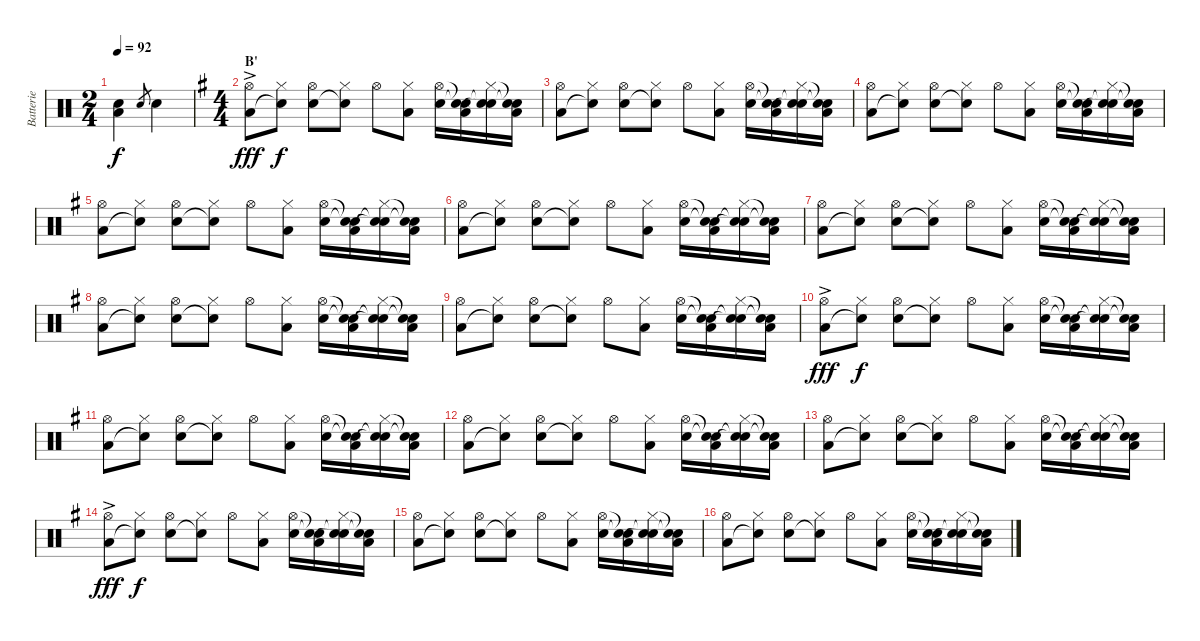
\track ("Batterie" "Batterie") {instrument percussion}
\staff {score}
\articulation defaults
\ts (2 4)
\tempo 92
\clef neutral
\ks c
("Snare (hit) 2" "Low Tom (hit)").4{dy f} "Electric Snare (hit)".8{gr} "Electric Snare (hit)".4 |
\ts (4 4)
\section ("" "B'")
\ks g
("Hi-Hat (open)"{ac} "Low Floor Tom (hit)").8{dy fff} ("Hi-Hat (closed)" "Snare (hit)"{t}).8{dy f} ("Hi-Hat (open)" "Electric Snare (hit)").8 ("Hi-Hat (closed)" "Snare (hit)"{t}).8 "Hi-Hat (open)".8 ("Hi-Hat (closed)" "Low Floor Tom (hit)").8 ("Hi-Hat (open)" "Electric Snare (hit)").16 ("Snare (hit)"{t} "Snare (hit)"{t} "Low Floor Tom (hit)").16 ("Hi-Hat (closed)" "Snare (hit)"{t} "Snare (hit)"{t}).16 ("Snare (hit)"{t} "Snare (hit)"{t} "Low Floor Tom (hit)").16 |
("Hi-Hat (open)" "Low Floor Tom (hit)").8 ("Hi-Hat (closed)" "Snare (hit)"{t}).8 ("Hi-Hat (open)" "Electric Snare (hit)").8 ("Hi-Hat (closed)" "Snare (hit)"{t}).8 "Hi-Hat (open)".8 ("Hi-Hat (closed)" "Low Floor Tom (hit)").8 ("Hi-Hat (open)" "Electric Snare (hit)").16 ("Snare (hit)"{t} "Snare (hit)"{t} "Low Floor Tom (hit)").16 ("Hi-Hat (closed)" "Snare (hit)"{t} "Snare (hit)"{t}).16 ("Snare (hit)"{t} "Snare (hit)"{t} "Low Floor Tom (hit)").16 |
("Hi-Hat (open)" "Low Floor Tom (hit)").8 ("Hi-Hat (closed)" "Snare (hit)"{t}).8 ("Hi-Hat (open)" "Electric Snare (hit)").8 ("Hi-Hat (closed)" "Snare (hit)"{t}).8 "Hi-Hat (open)".8 ("Hi-Hat (closed)" "Low Floor Tom (hit)").8 ("Hi-Hat (open)" "Electric Snare (hit)").16 ("Snare (hit)"{t} "Snare (hit)"{t} "Low Floor Tom (hit)").16 ("Hi-Hat (closed)" "Snare (hit)"{t} "Snare (hit)"{t}).16 ("Snare (hit)"{t} "Snare (hit)"{t} "Low Floor Tom (hit)").16 |
("Hi-Hat (open)" "Low Floor Tom (hit)").8 ("Hi-Hat (closed)" "Snare (hit)"{t}).8 ("Hi-Hat (open)" "Electric Snare (hit)").8 ("Hi-Hat (closed)" "Snare (hit)"{t}).8 "Hi-Hat (open)".8 ("Hi-Hat (closed)" "Low Floor Tom (hit)").8 ("Hi-Hat (open)" "Electric Snare (hit)").16 ("Snare (hit)"{t} "Snare (hit)"{t} "Low Floor Tom (hit)").16 ("Hi-Hat (closed)" "Snare (hit)"{t} "Snare (hit)"{t}).16 ("Snare (hit)"{t} "Snare (hit)"{t} "Low Floor Tom (hit)").16 |
("Hi-Hat (open)" "Low Floor Tom (hit)").8 ("Hi-Hat (closed)" "Snare (hit)"{t}).8 ("Hi-Hat (open)" "Electric Snare (hit)").8 ("Hi-Hat (closed)" "Snare (hit)"{t}).8 "Hi-Hat (open)".8 ("Hi-Hat (closed)" "Low Floor Tom (hit)").8 ("Hi-Hat (open)" "Electric Snare (hit)").16 ("Snare (hit)"{t} "Snare (hit)"{t} "Low Floor Tom (hit)").16 ("Hi-Hat (closed)" "Snare (hit)"{t} "Snare (hit)"{t}).16 ("Snare (hit)"{t} "Snare (hit)"{t} "Low Floor Tom (hit)").16 |
("Hi-Hat (open)" "Low Floor Tom (hit)").8 ("Hi-Hat (closed)" "Snare (hit)"{t}).8 ("Hi-Hat (open)" "Electric Snare (hit)").8 ("Hi-Hat (closed)" "Snare (hit)"{t}).8 "Hi-Hat (open)".8 ("Hi-Hat (closed)" "Low Floor Tom (hit)").8 ("Hi-Hat (open)" "Electric Snare (hit)").16 ("Snare (hit)"{t} "Snare (hit)"{t} "Low Floor Tom (hit)").16 ("Hi-Hat (closed)" "Snare (hit)"{t} "Snare (hit)"{t}).16 ("Snare (hit)"{t} "Snare (hit)"{t} "Low Floor Tom (hit)").16 |
("Hi-Hat (open)" "Low Floor Tom (hit)").8 ("Hi-Hat (closed)" "Snare (hit)"{t}).8 ("Hi-Hat (open)" "Electric Snare (hit)").8 ("Hi-Hat (closed)" "Snare (hit)"{t}).8 "Hi-Hat (open)".8 ("Hi-Hat (closed)" "Low Floor Tom (hit)").8 ("Hi-Hat (open)" "Electric Snare (hit)").16 ("Snare (hit)"{t} "Snare (hit)"{t} "Low Floor Tom (hit)").16 ("Hi-Hat (closed)" "Snare (hit)"{t} "Snare (hit)"{t}).16 ("Snare (hit)"{t} "Snare (hit)"{t} "Low Floor Tom (hit)").16 |
("Hi-Hat (open)" "Low Floor Tom (hit)").8 ("Hi-Hat (closed)" "Snare (hit)"{t}).8 ("Hi-Hat (open)" "Electric Snare (hit)").8 ("Hi-Hat (closed)" "Snare (hit)"{t}).8 "Hi-Hat (open)".8 ("Hi-Hat (closed)" "Low Floor Tom (hit)").8 ("Hi-Hat (open)" "Electric Snare (hit)").16 ("Snare (hit)"{t} "Snare (hit)"{t} "Low Floor Tom (hit)").16 ("Hi-Hat (closed)" "Snare (hit)"{t} "Snare (hit)"{t}).16 ("Snare (hit)"{t} "Snare (hit)"{t} "Low Floor Tom (hit)").16 |
("Hi-Hat (open)"{ac} "Low Floor Tom (hit)").8{dy fff} ("Hi-Hat (closed)" "Snare (hit)"{t}).8{dy f} ("Hi-Hat (open)" "Electric Snare (hit)").8 ("Hi-Hat (closed)" "Snare (hit)"{t}).8 "Hi-Hat (open)".8 ("Hi-Hat (closed)" "Low Floor Tom (hit)").8 ("Hi-Hat (open)" "Electric Snare (hit)").16 ("Snare (hit)"{t} "Snare (hit)"{t} "Low Floor Tom (hit)").16 ("Hi-Hat (closed)" "Snare (hit)"{t} "Snare (hit)"{t}).16 ("Snare (hit)"{t} "Snare (hit)"{t} "Low Floor Tom (hit)").16 |
("Hi-Hat (open)" "Low Floor Tom (hit)").8 ("Hi-Hat (closed)" "Snare (hit)"{t}).8 ("Hi-Hat (open)" "Electric Snare (hit)").8 ("Hi-Hat (closed)" "Snare (hit)"{t}).8 "Hi-Hat (open)".8 ("Hi-Hat (closed)" "Low Floor Tom (hit)").8 ("Hi-Hat (open)" "Electric Snare (hit)").16 ("Snare (hit)"{t} "Snare (hit)"{t} "Low Floor Tom (hit)").16 ("Hi-Hat (closed)" "Snare (hit)"{t} "Snare (hit)"{t}).16 ("Snare (hit)"{t} "Snare (hit)"{t} "Low Floor Tom (hit)").16 |
("Hi-Hat (open)" "Low Floor Tom (hit)").8 ("Hi-Hat (closed)" "Snare (hit)"{t}).8 ("Hi-Hat (open)" "Electric Snare (hit)").8 ("Hi-Hat (closed)" "Snare (hit)"{t}).8 "Hi-Hat (open)".8 ("Hi-Hat (closed)" "Low Floor Tom (hit)").8 ("Hi-Hat (open)" "Electric Snare (hit)").16 ("Snare (hit)"{t} "Snare (hit)"{t} "Low Floor Tom (hit)").16 ("Hi-Hat (closed)" "Snare (hit)"{t} "Snare (hit)"{t}).16 ("Snare (hit)"{t} "Snare (hit)"{t} "Low Floor Tom (hit)").16 |
("Hi-Hat (open)" "Low Floor Tom (hit)").8 ("Hi-Hat (closed)" "Snare (hit)"{t}).8 ("Hi-Hat (open)" "Electric Snare (hit)").8 ("Hi-Hat (closed)" "Snare (hit)"{t}).8 "Hi-Hat (open)".8 ("Hi-Hat (closed)" "Low Floor Tom (hit)").8 ("Hi-Hat (open)" "Electric Snare (hit)").16 ("Snare (hit)"{t} "Snare (hit)"{t} "Low Floor Tom (hit)").16 ("Hi-Hat (closed)" "Snare (hit)"{t} "Snare (hit)"{t}).16 ("Snare (hit)"{t} "Snare (hit)"{t} "Low Floor Tom (hit)").16 |
("Hi-Hat (open)"{ac} "Low Floor Tom (hit)").8{dy fff} ("Hi-Hat (closed)" "Snare (hit)"{t}).8{dy f} ("Hi-Hat (open)" "Electric Snare (hit)").8 ("Hi-Hat (closed)" "Snare (hit)"{t}).8 "Hi-Hat (open)".8 ("Hi-Hat (closed)" "Low Floor Tom (hit)").8 ("Hi-Hat (open)" "Electric Snare (hit)").16 ("Snare (hit)"{t} "Snare (hit)"{t} "Low Floor Tom (hit)").16 ("Hi-Hat (closed)" "Snare (hit)"{t} "Snare (hit)"{t}).16 ("Snare (hit)"{t} "Snare (hit)"{t} "Low Floor Tom (hit)").16 |
("Hi-Hat (open)" "Low Floor Tom (hit)").8 ("Hi-Hat (closed)" "Snare (hit)"{t}).8 ("Hi-Hat (open)" "Electric Snare (hit)").8 ("Hi-Hat (closed)" "Snare (hit)"{t}).8 "Hi-Hat (open)".8 ("Hi-Hat (closed)" "Low Floor Tom (hit)").8 ("Hi-Hat (open)" "Electric Snare (hit)").16 ("Snare (hit)"{t} "Snare (hit)"{t} "Low Floor Tom (hit)").16 ("Hi-Hat (closed)" "Snare (hit)"{t} "Snare (hit)"{t}).16 ("Snare (hit)"{t} "Snare (hit)"{t} "Low Floor Tom (hit)").16 |
("Hi-Hat (open)" "Low Floor Tom (hit)").8 ("Hi-Hat (closed)" "Snare (hit)"{t}).8 ("Hi-Hat (open)" "Electric Snare (hit)").8 ("Hi-Hat (closed)" "Snare (hit)"{t}).8 "Hi-Hat (open)".8 ("Hi-Hat (closed)" "Low Floor Tom (hit)").8 ("Hi-Hat (open)" "Electric Snare (hit)").16 ("Snare (hit)"{t} "Snare (hit)"{t} "Low Floor Tom (hit)").16 ("Hi-Hat (closed)" "Snare (hit)"{t} "Snare (hit)"{t}).16 ("Snare (hit)"{t} "Snare (hit)"{t} "Low Floor Tom (hit)").16
